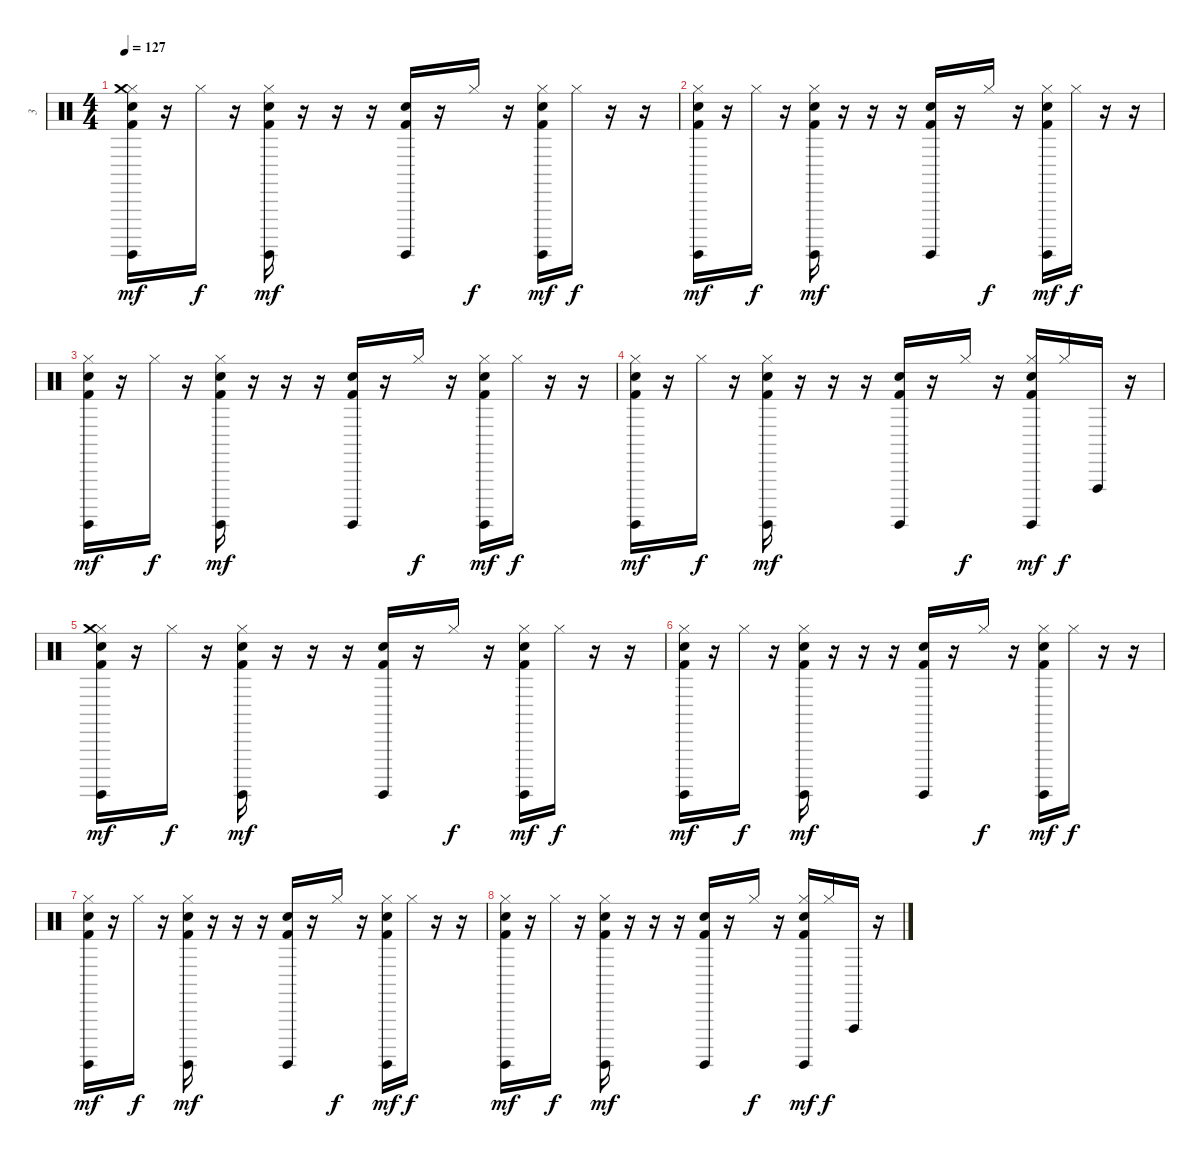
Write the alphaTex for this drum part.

\track ("3" "3") {instrument percussion}
\staff {score}
\articulation defaults
\ts (4 4)
\tempo 127
\clef neutral
\ks c
("Hi-Hat (closed)" "Crash medium (hit)" "Surdo (hit)" "Kick (hit) 2" "Hand Clap (hit)").16{dy mf} r.16 "Hi-Hat (closed)".16{dy f} r.16 ("Hi-Hat (closed)" "Surdo (hit)" "Kick (hit) 2" "Hand Clap (hit)").16{dy mf} r.16 r.16 r.16 ("Surdo (hit)" "Kick (hit) 2" "Hand Clap (hit)").16 r.16 "Hi-Hat (closed)".16{dy f} r.16 ("Hi-Hat (closed)" "Surdo (hit)" "Kick (hit) 2" "Hand Clap (hit)").16{dy mf} "Hi-Hat (closed)".16{dy f} r.16 r.16 |
("Hi-Hat (closed)" "Surdo (hit)" "Kick (hit) 2" "Hand Clap (hit)").16{dy mf} r.16 "Hi-Hat (closed)".16{dy f} r.16 ("Hi-Hat (closed)" "Surdo (hit)" "Kick (hit) 2" "Hand Clap (hit)").16{dy mf} r.16 r.16 r.16 ("Surdo (hit)" "Kick (hit) 2" "Hand Clap (hit)").16 r.16 "Hi-Hat (closed)".16{dy f} r.16 ("Hi-Hat (closed)" "Surdo (hit)" "Kick (hit) 2" "Hand Clap (hit)").16{dy mf} "Hi-Hat (closed)".16{dy f} r.16 r.16 |
("Hi-Hat (closed)" "Surdo (hit)" "Kick (hit) 2" "Hand Clap (hit)").16{dy mf} r.16 "Hi-Hat (closed)".16{dy f} r.16 ("Hi-Hat (closed)" "Surdo (hit)" "Kick (hit) 2" "Hand Clap (hit)").16{dy mf} r.16 r.16 r.16 ("Surdo (hit)" "Kick (hit) 2" "Hand Clap (hit)").16 r.16 "Hi-Hat (closed)".16{dy f} r.16 ("Hi-Hat (closed)" "Surdo (hit)" "Kick (hit) 2" "Hand Clap (hit)").16{dy mf} "Hi-Hat (closed)".16{dy f} r.16 r.16 |
("Hi-Hat (closed)" "Surdo (hit)" "Kick (hit) 2" "Hand Clap (hit)").16{dy mf} r.16 "Hi-Hat (closed)".16{dy f} r.16 ("Hi-Hat (closed)" "Surdo (hit)" "Kick (hit) 2" "Hand Clap (hit)").16{dy mf} r.16 r.16 r.16 ("Surdo (hit)" "Kick (hit) 2" "Hand Clap (hit)").16 r.16 "Hi-Hat (closed)".16{dy f} r.16 ("Hi-Hat (closed)" "Surdo (hit)" "Kick (hit) 2" "Hand Clap (hit)").16{dy mf} "Hi-Hat (closed)".16{dy f} "Vibraslap (hit)".16 r.16 |
("Hi-Hat (closed)" "Crash medium (hit)" "Surdo (hit)" "Kick (hit) 2" "Hand Clap (hit)").16{dy mf} r.16 "Hi-Hat (closed)".16{dy f} r.16 ("Hi-Hat (closed)" "Surdo (hit)" "Kick (hit) 2" "Hand Clap (hit)").16{dy mf} r.16 r.16 r.16 ("Surdo (hit)" "Kick (hit) 2" "Hand Clap (hit)").16 r.16 "Hi-Hat (closed)".16{dy f} r.16 ("Hi-Hat (closed)" "Surdo (hit)" "Kick (hit) 2" "Hand Clap (hit)").16{dy mf} "Hi-Hat (closed)".16{dy f} r.16 r.16 |
("Hi-Hat (closed)" "Surdo (hit)" "Kick (hit) 2" "Hand Clap (hit)").16{dy mf} r.16 "Hi-Hat (closed)".16{dy f} r.16 ("Hi-Hat (closed)" "Surdo (hit)" "Kick (hit) 2" "Hand Clap (hit)").16{dy mf} r.16 r.16 r.16 ("Surdo (hit)" "Kick (hit) 2" "Hand Clap (hit)").16 r.16 "Hi-Hat (closed)".16{dy f} r.16 ("Hi-Hat (closed)" "Surdo (hit)" "Kick (hit) 2" "Hand Clap (hit)").16{dy mf} "Hi-Hat (closed)".16{dy f} r.16 r.16 |
("Hi-Hat (closed)" "Surdo (hit)" "Kick (hit) 2" "Hand Clap (hit)").16{dy mf} r.16 "Hi-Hat (closed)".16{dy f} r.16 ("Hi-Hat (closed)" "Surdo (hit)" "Kick (hit) 2" "Hand Clap (hit)").16{dy mf} r.16 r.16 r.16 ("Surdo (hit)" "Kick (hit) 2" "Hand Clap (hit)").16 r.16 "Hi-Hat (closed)".16{dy f} r.16 ("Hi-Hat (closed)" "Surdo (hit)" "Kick (hit) 2" "Hand Clap (hit)").16{dy mf} "Hi-Hat (closed)".16{dy f} r.16 r.16 |
("Hi-Hat (closed)" "Surdo (hit)" "Kick (hit) 2" "Hand Clap (hit)").16{dy mf} r.16 "Hi-Hat (closed)".16{dy f} r.16 ("Hi-Hat (closed)" "Surdo (hit)" "Kick (hit) 2" "Hand Clap (hit)").16{dy mf} r.16 r.16 r.16 ("Surdo (hit)" "Kick (hit) 2" "Hand Clap (hit)").16 r.16 "Hi-Hat (closed)".16{dy f} r.16 ("Hi-Hat (closed)" "Surdo (hit)" "Kick (hit) 2" "Hand Clap (hit)").16{dy mf} "Hi-Hat (closed)".16{dy f} "Vibraslap (hit)".16 r.16
